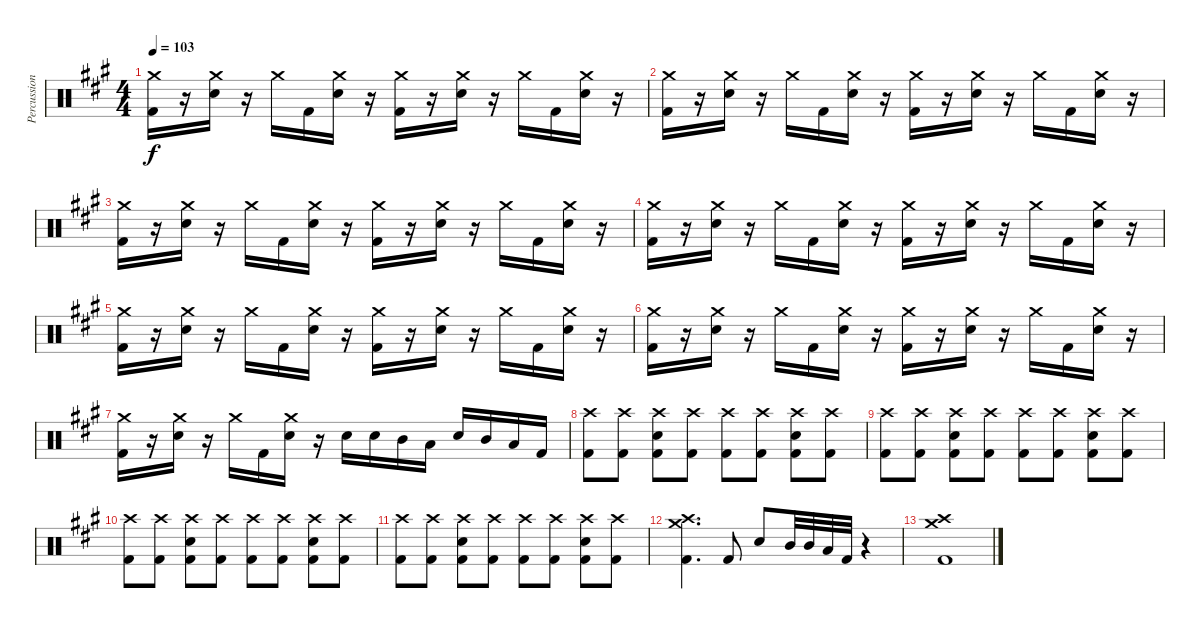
\track ("Percussion" "Percussion") {instrument percussion}
\staff {score}
\articulation defaults
\ts (4 4)
\tempo 103
\clef neutral
\ks f#minor
("Crash medium (hit)" "Kick (hit) 2").16{dy f} r.16 ("Crash medium (hit)" "Electric Snare (hit)").16 r.16 "Crash medium (hit)".16 "Kick (hit) 2".16 ("Crash medium (hit)" "Electric Snare (hit)").16 r.16 ("Crash medium (hit)" "Kick (hit) 2").16 r.16 ("Crash medium (hit)" "Electric Snare (hit)").16 r.16 "Crash medium (hit)".16 "Kick (hit) 2".16 ("Crash medium (hit)" "Electric Snare (hit)").16 r.16 |
("Crash medium (hit)" "Kick (hit) 2").16 r.16 ("Crash medium (hit)" "Electric Snare (hit)").16 r.16 "Crash medium (hit)".16 "Kick (hit) 2".16 ("Crash medium (hit)" "Electric Snare (hit)").16 r.16 ("Crash medium (hit)" "Kick (hit) 2").16 r.16 ("Crash medium (hit)" "Electric Snare (hit)").16 r.16 "Crash medium (hit)".16 "Kick (hit) 2".16 ("Crash medium (hit)" "Electric Snare (hit)").16 r.16 |
("Crash medium (hit)" "Kick (hit) 2").16 r.16 ("Crash medium (hit)" "Electric Snare (hit)").16 r.16 "Crash medium (hit)".16 "Kick (hit) 2".16 ("Crash medium (hit)" "Electric Snare (hit)").16 r.16 ("Crash medium (hit)" "Kick (hit) 2").16 r.16 ("Crash medium (hit)" "Electric Snare (hit)").16 r.16 "Crash medium (hit)".16 "Kick (hit) 2".16 ("Crash medium (hit)" "Electric Snare (hit)").16 r.16 |
("Crash medium (hit)" "Kick (hit) 2").16 r.16 ("Crash medium (hit)" "Electric Snare (hit)").16 r.16 "Crash medium (hit)".16 "Kick (hit) 2".16 ("Crash medium (hit)" "Electric Snare (hit)").16 r.16 ("Crash medium (hit)" "Kick (hit) 2").16 r.16 ("Crash medium (hit)" "Electric Snare (hit)").16 r.16 "Crash medium (hit)".16 "Kick (hit) 2".16 ("Crash medium (hit)" "Electric Snare (hit)").16 r.16 |
("Crash medium (hit)" "Kick (hit) 2").16 r.16 ("Crash medium (hit)" "Electric Snare (hit)").16 r.16 "Crash medium (hit)".16 "Kick (hit) 2".16 ("Crash medium (hit)" "Electric Snare (hit)").16 r.16 ("Crash medium (hit)" "Kick (hit) 2").16 r.16 ("Crash medium (hit)" "Electric Snare (hit)").16 r.16 "Crash medium (hit)".16 "Kick (hit) 2".16 ("Crash medium (hit)" "Electric Snare (hit)").16 r.16 |
("Crash medium (hit)" "Kick (hit) 2").16 r.16 ("Crash medium (hit)" "Electric Snare (hit)").16 r.16 "Crash medium (hit)".16 "Kick (hit) 2".16 ("Crash medium (hit)" "Electric Snare (hit)").16 r.16 ("Crash medium (hit)" "Kick (hit) 2").16 r.16 ("Crash medium (hit)" "Electric Snare (hit)").16 r.16 "Crash medium (hit)".16 "Kick (hit) 2".16 ("Crash medium (hit)" "Electric Snare (hit)").16 r.16 |
("Crash medium (hit)" "Kick (hit) 2").16 r.16 ("Crash medium (hit)" "Electric Snare (hit)").16 r.16 "Crash medium (hit)".16 "Kick (hit) 2".16 ("Crash medium (hit)" "Electric Snare (hit)").16 r.16 "Electric Snare (hit)".16 "Electric Snare (hit)".16 "Mid Tom (hit)".16 "Low Tom (hit)".16 "Electric Snare (hit)".16 "Mid Tom (hit)".16 "Low Tom (hit)".16 "Kick (hit) 2".16 |
("Crash high (hit)" "Kick (hit) 2").8 ("Crash high (hit)" "Kick (hit) 2").8 ("Crash high (hit)" "Electric Snare (hit)" "Kick (hit) 2").8 ("Crash high (hit)" "Kick (hit) 2").8 ("Crash high (hit)" "Kick (hit) 2").8 ("Crash high (hit)" "Kick (hit) 2").8 ("Crash high (hit)" "Electric Snare (hit)" "Kick (hit) 2").8 ("Crash high (hit)" "Kick (hit) 2").8 |
("Crash high (hit)" "Kick (hit) 2").8 ("Crash high (hit)" "Kick (hit) 2").8 ("Crash high (hit)" "Electric Snare (hit)" "Kick (hit) 2").8 ("Crash high (hit)" "Kick (hit) 2").8 ("Crash high (hit)" "Kick (hit) 2").8 ("Crash high (hit)" "Kick (hit) 2").8 ("Crash high (hit)" "Electric Snare (hit)" "Kick (hit) 2").8 ("Crash high (hit)" "Kick (hit) 2").8 |
("Crash high (hit)" "Kick (hit) 2").8 ("Crash high (hit)" "Kick (hit) 2").8 ("Crash high (hit)" "Electric Snare (hit)" "Kick (hit) 2").8 ("Crash high (hit)" "Kick (hit) 2").8 ("Crash high (hit)" "Kick (hit) 2").8 ("Crash high (hit)" "Kick (hit) 2").8 ("Crash high (hit)" "Electric Snare (hit)" "Kick (hit) 2").8 ("Crash high (hit)" "Kick (hit) 2").8 |
("Crash high (hit)" "Kick (hit) 2").8 ("Crash high (hit)" "Kick (hit) 2").8 ("Crash high (hit)" "Electric Snare (hit)" "Kick (hit) 2").8 ("Crash high (hit)" "Kick (hit) 2").8 ("Crash high (hit)" "Kick (hit) 2").8 ("Crash high (hit)" "Kick (hit) 2").8 ("Crash high (hit)" "Electric Snare (hit)" "Kick (hit) 2").8 ("Crash high (hit)" "Kick (hit) 2").8 |
("Crash high (hit)" "Crash medium (hit)" "Kick (hit) 2").4{d} "Kick (hit) 2".8 "Electric Snare (hit)".8 "Mid Tom (hit)".32 "Mid Tom (hit)".32 "Low Tom (hit)".32 "Kick (hit) 2".32 r.4 |
("Crash high (hit)" "Crash medium (hit)" "Kick (hit) 2").1
